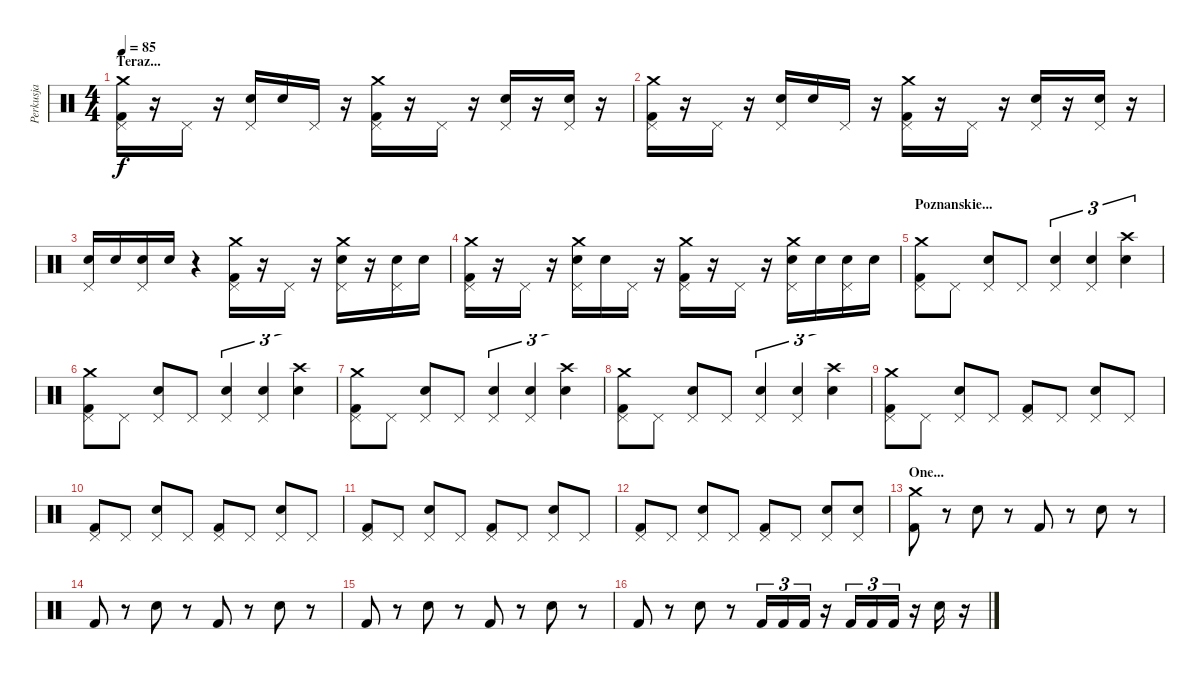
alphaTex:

\track ("Perkusja" "Perkusja") {instrument percussion}
\staff {score}
\articulation defaults
\ts (4 4)
\section ("" "Teraz...")
\tempo 85
\clef neutral
\ks c
("Crash medium (hit)" "Kick (hit) 2" "Pedal Hi-Hat (hit)").16{dy f} r.16 "Pedal Hi-Hat (hit)".16 r.16 ("Snare (hit) 2" "Pedal Hi-Hat (hit)").16 "Snare (hit) 2".16 "Pedal Hi-Hat (hit)".16 r.16 ("Crash medium (hit)" "Kick (hit) 2" "Pedal Hi-Hat (hit)").16 r.16 "Pedal Hi-Hat (hit)".16 r.16 ("Snare (hit) 2" "Pedal Hi-Hat (hit)").16 r.16 ("Snare (hit) 2" "Pedal Hi-Hat (hit)").16 r.16 |
("Crash medium (hit)" "Kick (hit) 2" "Pedal Hi-Hat (hit)").16 r.16 "Pedal Hi-Hat (hit)".16 r.16 ("Snare (hit) 2" "Pedal Hi-Hat (hit)").16 "Snare (hit) 2".16 "Pedal Hi-Hat (hit)".16 r.16 ("Crash medium (hit)" "Kick (hit) 2" "Pedal Hi-Hat (hit)").16 r.16 "Pedal Hi-Hat (hit)".16 r.16 ("Snare (hit) 2" "Pedal Hi-Hat (hit)").16 r.16 ("Snare (hit) 2" "Pedal Hi-Hat (hit)").16 r.16 |
("Snare (hit) 2" "Pedal Hi-Hat (hit)").16 "Snare (hit) 2".16 ("Snare (hit) 2" "Pedal Hi-Hat (hit)").16 "Snare (hit) 2".16 r.4 ("Crash medium (hit)" "Kick (hit) 2" "Pedal Hi-Hat (hit)").16 r.16 "Pedal Hi-Hat (hit)".16 r.16 ("Crash medium (hit)" "Snare (hit) 2" "Pedal Hi-Hat (hit)").16 r.16 ("Snare (hit) 2" "Pedal Hi-Hat (hit)").16 "Snare (hit) 2".16 |
("Crash medium (hit)" "Kick (hit) 2" "Pedal Hi-Hat (hit)").16 r.16 "Pedal Hi-Hat (hit)".16 r.16 ("Crash medium (hit)" "Snare (hit) 2" "Pedal Hi-Hat (hit)").16 "Snare (hit) 2".16 "Pedal Hi-Hat (hit)".16 r.16 ("Crash medium (hit)" "Kick (hit) 2" "Pedal Hi-Hat (hit)").16 r.16 "Pedal Hi-Hat (hit)".16 r.16 ("Crash medium (hit)" "Snare (hit) 2" "Pedal Hi-Hat (hit)").16 "Snare (hit) 2".16 ("Snare (hit) 2" "Pedal Hi-Hat (hit)").16 "Snare (hit) 2".16 |
\section ("" "Poznanskie...")
("Crash medium (hit)" "Kick (hit) 2" "Pedal Hi-Hat (hit)").8 "Pedal Hi-Hat (hit)".8 ("Snare (hit) 2" "Pedal Hi-Hat (hit)").8 "Pedal Hi-Hat (hit)".8 ("Snare (hit) 2" "Pedal Hi-Hat (hit)").4{tu (3 2)} ("Snare (hit) 2" "Pedal Hi-Hat (hit)").4{tu (3 2)} ("Snare (hit) 2" "Crash high (hit)").4{tu (3 2)} |
("Crash medium (hit)" "Kick (hit) 2" "Pedal Hi-Hat (hit)").8 "Pedal Hi-Hat (hit)".8 ("Snare (hit) 2" "Pedal Hi-Hat (hit)").8 "Pedal Hi-Hat (hit)".8 ("Snare (hit) 2" "Pedal Hi-Hat (hit)").4{tu (3 2)} ("Snare (hit) 2" "Pedal Hi-Hat (hit)").4{tu (3 2)} ("Snare (hit) 2" "Crash high (hit)").4{tu (3 2)} |
("Crash medium (hit)" "Kick (hit) 2" "Pedal Hi-Hat (hit)").8 "Pedal Hi-Hat (hit)".8 ("Snare (hit) 2" "Pedal Hi-Hat (hit)").8 "Pedal Hi-Hat (hit)".8 ("Snare (hit) 2" "Pedal Hi-Hat (hit)").4{tu (3 2)} ("Snare (hit) 2" "Pedal Hi-Hat (hit)").4{tu (3 2)} ("Snare (hit) 2" "Crash high (hit)").4{tu (3 2)} |
("Crash medium (hit)" "Kick (hit) 2" "Pedal Hi-Hat (hit)").8 "Pedal Hi-Hat (hit)".8 ("Snare (hit) 2" "Pedal Hi-Hat (hit)").8 "Pedal Hi-Hat (hit)".8 ("Snare (hit) 2" "Pedal Hi-Hat (hit)").4{tu (3 2)} ("Snare (hit) 2" "Pedal Hi-Hat (hit)").4{tu (3 2)} ("Snare (hit) 2" "Crash high (hit)").4{tu (3 2)} |
("Crash medium (hit)" "Kick (hit) 2" "Pedal Hi-Hat (hit)").8 "Pedal Hi-Hat (hit)".8 ("Snare (hit) 2" "Pedal Hi-Hat (hit)").8 "Pedal Hi-Hat (hit)".8 ("Kick (hit) 2" "Pedal Hi-Hat (hit)").8 "Pedal Hi-Hat (hit)".8 ("Snare (hit) 2" "Pedal Hi-Hat (hit)").8 "Pedal Hi-Hat (hit)".8 |
("Kick (hit) 2" "Pedal Hi-Hat (hit)").8 "Pedal Hi-Hat (hit)".8 ("Snare (hit) 2" "Pedal Hi-Hat (hit)").8 "Pedal Hi-Hat (hit)".8 ("Kick (hit) 2" "Pedal Hi-Hat (hit)").8 "Pedal Hi-Hat (hit)".8 ("Snare (hit) 2" "Pedal Hi-Hat (hit)").8 "Pedal Hi-Hat (hit)".8 |
("Kick (hit) 2" "Pedal Hi-Hat (hit)").8 "Pedal Hi-Hat (hit)".8 ("Snare (hit) 2" "Pedal Hi-Hat (hit)").8 "Pedal Hi-Hat (hit)".8 ("Kick (hit) 2" "Pedal Hi-Hat (hit)").8 "Pedal Hi-Hat (hit)".8 ("Snare (hit) 2" "Pedal Hi-Hat (hit)").8 "Pedal Hi-Hat (hit)".8 |
("Kick (hit) 2" "Pedal Hi-Hat (hit)").8 "Pedal Hi-Hat (hit)".8 ("Snare (hit) 2" "Pedal Hi-Hat (hit)").8 "Pedal Hi-Hat (hit)".8 ("Kick (hit) 2" "Pedal Hi-Hat (hit)").8 "Pedal Hi-Hat (hit)".8 ("Snare (hit) 2" "Pedal Hi-Hat (hit)").8 ("Snare (hit) 2" "Pedal Hi-Hat (hit)").8 |
\section ("" "One...")
("Crash medium (hit)" "Kick (hit) 2").8 r.8 "Snare (hit) 2".8 r.8 "Kick (hit) 2".8 r.8 "Snare (hit) 2".8 r.8 |
"Kick (hit) 2".8 r.8 "Snare (hit) 2".8 r.8 "Kick (hit) 2".8 r.8 "Snare (hit) 2".8 r.8 |
"Kick (hit) 2".8 r.8 "Snare (hit) 2".8 r.8 "Kick (hit) 2".8 r.8 "Snare (hit) 2".8 r.8 |
"Kick (hit) 2".8 r.8 "Snare (hit) 2".8 r.8 "Kick (hit) 2".16{tu (3 2)} "Kick (hit) 2".16{tu (3 2)} "Kick (hit) 2".16{tu (3 2)} r.16 "Kick (hit) 2".16{tu (3 2)} "Kick (hit) 2".16{tu (3 2)} "Kick (hit) 2".16{tu (3 2)} r.16 "Snare (hit) 2".16 r.16
